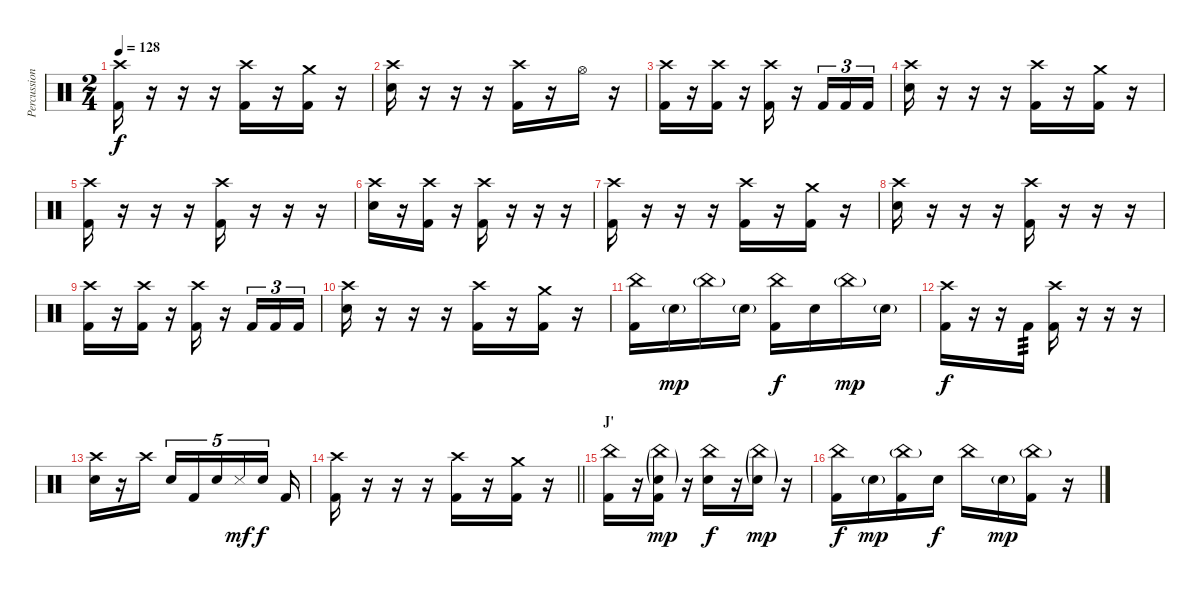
\track ("Percussion" "Percussion") {instrument percussion}
\staff {score}
\articulation defaults
\ts (2 4)
\tempo 128
\clef neutral
\ks c
("Crash high (hit)" "Kick (hit) 2").16{dy f} r.16 r.16 r.16 ("Crash high (hit)" "Kick (hit) 2").16 r.16 ("Crash medium (hit)" "Kick (hit) 2").16 r.16 |
("Crash high (hit)" "Snare (hit) 2").16 r.16 r.16 r.16 ("Crash high (hit)" "Kick (hit) 2").16 r.16 "Hi-Hat (open)".16 r.16 |
("Crash high (hit)" "Kick (hit) 2").16 r.16 ("Crash high (hit)" "Kick (hit) 2").16 r.16 ("Crash high (hit)" "Kick (hit) 2").16 r.16 "Kick (hit) 2".16{tu (3 2)} "Kick (hit) 2".16{tu (3 2)} "Kick (hit) 2".16{tu (3 2)} |
("Crash high (hit)" "Snare (hit) 2").16 r.16 r.16 r.16 ("Crash high (hit)" "Kick (hit) 2").16 r.16 ("Crash medium (hit)" "Kick (hit) 2").16 r.16 |
("Crash high (hit)" "Kick (hit) 2").16 r.16 r.16 r.16 ("Crash high (hit)" "Kick (hit) 2").16 r.16 r.16 r.16 |
("Crash high (hit)" "Snare (hit) 2").16 r.16 ("Crash high (hit)" "Kick (hit) 2").16 r.16 ("Crash high (hit)" "Kick (hit) 2").16 r.16 r.16 r.16 |
("Crash high (hit)" "Kick (hit) 2").16 r.16 r.16 r.16 ("Crash high (hit)" "Kick (hit) 2").16 r.16 ("Crash medium (hit)" "Kick (hit) 2").16 r.16 |
("Crash high (hit)" "Snare (hit) 2").16 r.16 r.16 r.16 ("Crash high (hit)" "Kick (hit) 2").16 r.16 r.16 r.16 |
("Crash high (hit)" "Kick (hit) 2").16 r.16 ("Crash high (hit)" "Kick (hit) 2").16 r.16 ("Crash high (hit)" "Kick (hit) 2").16 r.16 "Kick (hit) 2".16{tu (3 2)} "Kick (hit) 2".16{tu (3 2)} "Kick (hit) 2".16{tu (3 2)} |
("Crash high (hit)" "Snare (hit) 2").16 r.16 r.16 r.16 ("Crash high (hit)" "Kick (hit) 2").16 r.16 ("Crash medium (hit)" "Kick (hit) 2").16 r.16 |
("China (hit)" "Kick (hit) 2").16 "Snare (hit) 2"{g}.16{dy mp} "China (hit)"{g}.16 "Snare (hit) 2"{g}.16 ("China (hit)" "Kick (hit) 2").16{dy f} "Snare (hit) 2".16 "China (hit)"{g}.16{dy mp} "Snare (hit) 2"{g}.16 |
("Crash high (hit)" "Kick (hit) 2").16{dy f} r.16 r.16 "Kick (hit) 2".16{tp 3} ("Crash high (hit)" "Kick (hit) 2").16 r.16 r.16 r.16 |
("Crash high (hit)" "Snare (hit) 2").16 r.16 "Crash high (hit)".16{beam splitsecondary} "Snare (hit) 2".16{tu (5 4)} "Kick (hit) 2".16{tu (5 4)} "Snare (hit) 2".16{tu (5 4)} "Metronome (hit)".16{tu (5 4) dy mf} "Snare (hit) 2".16{tu (5 4) dy f beam splitsecondary} "Kick (hit) 2".16 |
\barLineRight lightlight
("Crash high (hit)" "Kick (hit) 2").16 r.16 r.16 r.16 ("Crash high (hit)" "Kick (hit) 2").16 r.16 ("Crash medium (hit)" "Kick (hit) 2").16 r.16 |
\section ("" "J'")
("China (hit)" "Kick (hit) 2").16 r.16 ("China (hit)"{g} "Snare (hit) 2"{g} "Kick (hit) 2").16{dy mp} r.16 ("China (hit)" "Snare (hit) 2").16{dy f} r.16 ("China (hit)"{g} "Snare (hit) 2"{g}).16{dy mp} r.16 |
("China (hit)" "Kick (hit) 2").16{dy f} "Snare (hit) 2"{g}.16{dy mp} ("China (hit)"{g} "Kick (hit) 2").16 "Snare (hit) 2".16{dy f} "China (hit)".16 "Snare (hit) 2"{g}.16{dy mp} ("China (hit)"{g} "Kick (hit) 2").16 r.16
